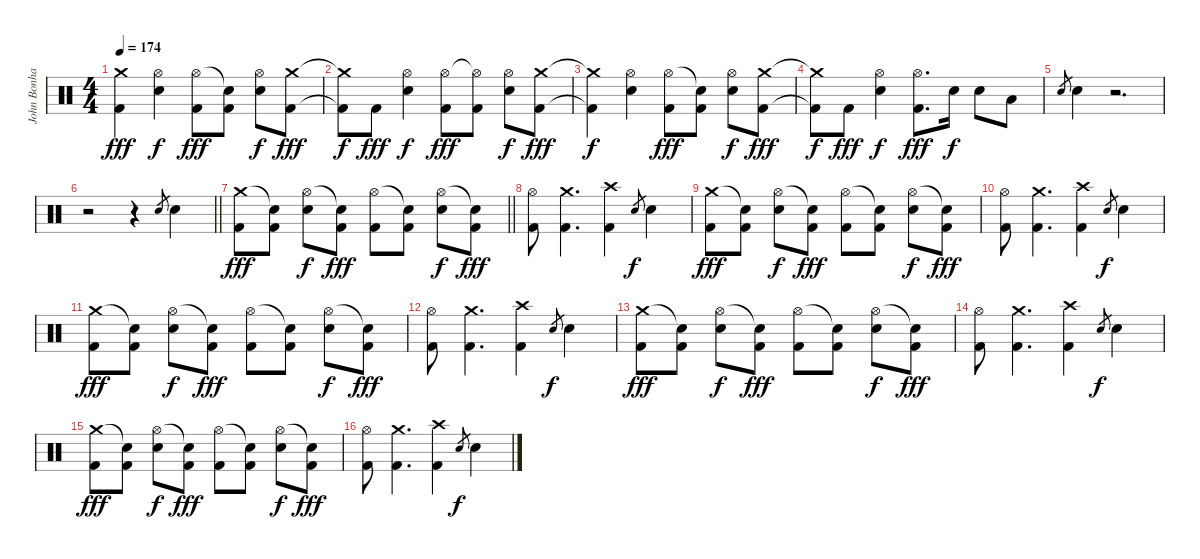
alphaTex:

\track ("John Bonham - Drums" "John Bonha") {instrument percussion}
\staff {score}
\articulation defaults
\ts (4 4)
\tempo 174
\clef neutral
\ks c
("Crash medium (hit)" "Kick (hit) 2").4{dy fff} ("Hi-Hat (open)" "Snare (hit) 2").4{dy f} ("Hi-Hat (open)" "Kick (hit) 2").8{dy fff} ("Snare (hit)"{t} "Kick (hit) 2").8 ("Hi-Hat (open)" "Snare (hit) 2").8{dy f} ("Crash medium (hit)" "Kick (hit) 2").8{dy fff} |
("Crash medium (hit)"{t} "Kick (hit) 2"{t}).8{dy f} "Kick (hit) 2".8{dy fff} ("Hi-Hat (open)" "Snare (hit) 2").4{dy f} ("Hi-Hat (open)" "Kick (hit) 2").8{dy fff} ("Hi-Hat (open)"{t} "Kick (hit) 2").8 ("Hi-Hat (open)" "Snare (hit) 2").8{dy f} ("Crash medium (hit)" "Kick (hit) 2").8{dy fff} |
("Crash medium (hit)"{t} "Kick (hit) 2"{t}).4{dy f} ("Hi-Hat (open)" "Snare (hit) 2").4 ("Hi-Hat (open)" "Kick (hit) 2").8{dy fff} ("Snare (hit)"{t} "Kick (hit) 2").8 ("Hi-Hat (open)" "Snare (hit) 2").8{dy f} ("Crash medium (hit)" "Kick (hit) 2").8{dy fff} |
("Crash medium (hit)"{t} "Kick (hit) 2"{t}).8{dy f} "Kick (hit) 2".8{dy fff} ("Hi-Hat (open)" "Snare (hit) 2").4{dy f} ("Hi-Hat (open)" "Kick (hit) 2").8{d dy fff} "Snare (hit) 2".16{dy f} "Snare (hit) 2".8 "Low Tom (hit)".8 |
"Snare (hit) 2".8{gr} "Snare (hit) 2".4 r.2{d} |
\barLineRight lightlight
r.2 r.4 "Snare (hit) 2".8{gr} "Snare (hit) 2".4 |
\barLineRight lightlight
("Crash medium (hit)" "Kick (hit) 2").8{dy fff} ("Snare (hit)"{t} "Kick (hit) 2").8 ("Hi-Hat (open)" "Snare (hit) 2").8{dy f} ("Snare (hit)"{t} "Kick (hit) 2").8{dy fff} ("Hi-Hat (open)" "Kick (hit) 2").8 ("Snare (hit)"{t} "Kick (hit) 2").8 ("Hi-Hat (open)" "Snare (hit) 2").8{dy f} ("Snare (hit)"{t} "Kick (hit) 2").8{dy fff} |
("Hi-Hat (open)" "Kick (hit) 2").8 ("Crash medium (hit)" "Kick (hit) 2").4{d} ("Crash high (hit)" "Kick (hit) 2").4 "Snare (hit) 2".8{gr dy f} "Snare (hit) 2".4 |
("Crash medium (hit)" "Kick (hit) 2").8{dy fff} ("Snare (hit)"{t} "Kick (hit) 2").8 ("Hi-Hat (open)" "Snare (hit) 2").8{dy f} ("Snare (hit)"{t} "Kick (hit) 2").8{dy fff} ("Hi-Hat (open)" "Kick (hit) 2").8 ("Snare (hit)"{t} "Kick (hit) 2").8 ("Hi-Hat (open)" "Snare (hit) 2").8{dy f} ("Snare (hit)"{t} "Kick (hit) 2").8{dy fff} |
("Hi-Hat (open)" "Kick (hit) 2").8 ("Crash medium (hit)" "Kick (hit) 2").4{d} ("Crash high (hit)" "Kick (hit) 2").4 "Snare (hit) 2".8{gr dy f} "Snare (hit) 2".4 |
("Crash medium (hit)" "Kick (hit) 2").8{dy fff} ("Snare (hit)"{t} "Kick (hit) 2").8 ("Hi-Hat (open)" "Snare (hit) 2").8{dy f} ("Snare (hit)"{t} "Kick (hit) 2").8{dy fff} ("Hi-Hat (open)" "Kick (hit) 2").8 ("Snare (hit)"{t} "Kick (hit) 2").8 ("Hi-Hat (open)" "Snare (hit) 2").8{dy f} ("Snare (hit)"{t} "Kick (hit) 2").8{dy fff} |
("Hi-Hat (open)" "Kick (hit) 2").8 ("Crash medium (hit)" "Kick (hit) 2").4{d} ("Crash high (hit)" "Kick (hit) 2").4 "Snare (hit) 2".8{gr dy f} "Snare (hit) 2".4 |
("Crash medium (hit)" "Kick (hit) 2").8{dy fff} ("Snare (hit)"{t} "Kick (hit) 2").8 ("Hi-Hat (open)" "Snare (hit) 2").8{dy f} ("Snare (hit)"{t} "Kick (hit) 2").8{dy fff} ("Hi-Hat (open)" "Kick (hit) 2").8 ("Snare (hit)"{t} "Kick (hit) 2").8 ("Hi-Hat (open)" "Snare (hit) 2").8{dy f} ("Snare (hit)"{t} "Kick (hit) 2").8{dy fff} |
("Hi-Hat (open)" "Kick (hit) 2").8 ("Crash medium (hit)" "Kick (hit) 2").4{d} ("Crash high (hit)" "Kick (hit) 2").4 "Snare (hit) 2".8{gr dy f} "Snare (hit) 2".4 |
("Crash medium (hit)" "Kick (hit) 2").8{dy fff} ("Snare (hit)"{t} "Kick (hit) 2").8 ("Hi-Hat (open)" "Snare (hit) 2").8{dy f} ("Snare (hit)"{t} "Kick (hit) 2").8{dy fff} ("Hi-Hat (open)" "Kick (hit) 2").8 ("Snare (hit)"{t} "Kick (hit) 2").8 ("Hi-Hat (open)" "Snare (hit) 2").8{dy f} ("Snare (hit)"{t} "Kick (hit) 2").8{dy fff} |
("Hi-Hat (open)" "Kick (hit) 2").8 ("Crash medium (hit)" "Kick (hit) 2").4{d} ("Crash high (hit)" "Kick (hit) 2").4 "Snare (hit) 2".8{gr dy f} "Snare (hit) 2".4
